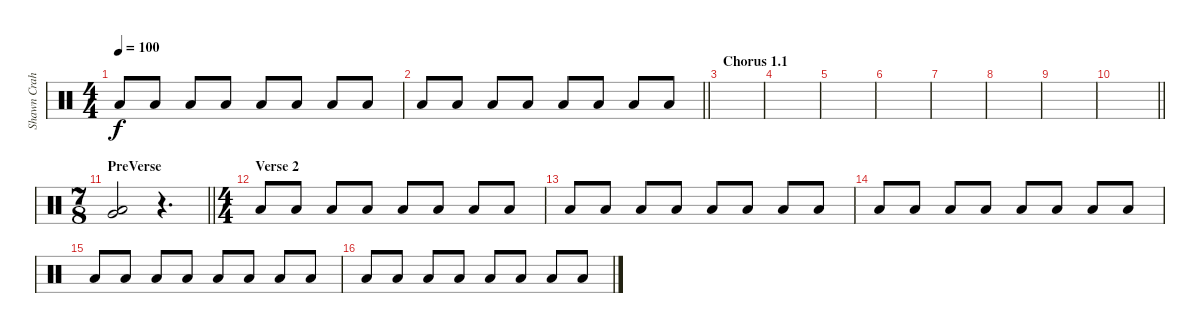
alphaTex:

\track ("Shawn Crahan" "Shawn Crah") {instrument percussion}
\staff {score}
\articulation defaults
\ts (4 4)
\tempo 100
\clef neutral
\ks c "Low Floor Tom (hit)".8{dy f} "Low Tom (hit)".8 "Low Floor Tom (hit)".8 "Low Tom (hit)".8 "Low Floor Tom (hit)".8 "Low Tom (hit)".8 "Low Floor Tom (hit)".8 "Low Tom (hit)".8
|
\barLineRight lightlight "Low Floor Tom (hit)".8 "Low Tom (hit)".8 "Low Floor Tom (hit)".8 "Low Tom (hit)".8 "Low Floor Tom (hit)".8 "Low Tom (hit)".8 "Low Floor Tom (hit)".8 "Low Tom (hit)".8
|
\section ("" "Chorus 1.1")
|
|
|
|
|
|
|
\barLineRight lightlight
|
\ts (7 8)
\section ("" "PreVerse")
\barLineRight lightlight
("Very Low Tom (hit)" "Low Floor Tom (hit)").2 r.4{d} |
\ts (4 4)
\section ("" "Verse 2")
"Low Floor Tom (hit)".8 "Low Tom (hit)".8 "Low Floor Tom (hit)".8 "Low Tom (hit)".8 "Low Floor Tom (hit)".8 "Low Tom (hit)".8 "Low Floor Tom (hit)".8 "Low Tom (hit)".8 |
"Low Floor Tom (hit)".8 "Low Tom (hit)".8 "Low Floor Tom (hit)".8 "Low Tom (hit)".8 "Low Floor Tom (hit)".8 "Low Tom (hit)".8 "Low Floor Tom (hit)".8 "Low Tom (hit)".8 |
"Low Floor Tom (hit)".8 "Low Tom (hit)".8 "Low Floor Tom (hit)".8 "Low Tom (hit)".8 "Low Floor Tom (hit)".8 "Low Tom (hit)".8 "Low Floor Tom (hit)".8 "Low Tom (hit)".8 |
"Low Floor Tom (hit)".8 "Low Tom (hit)".8 "Low Floor Tom (hit)".8 "Low Tom (hit)".8 "Low Floor Tom (hit)".8 "Low Tom (hit)".8 "Low Floor Tom (hit)".8 "Low Tom (hit)".8 |
"Low Floor Tom (hit)".8 "Low Tom (hit)".8 "Low Floor Tom (hit)".8 "Low Tom (hit)".8 "Low Floor Tom (hit)".8 "Low Tom (hit)".8 "Low Floor Tom (hit)".8 "Low Tom (hit)".8
